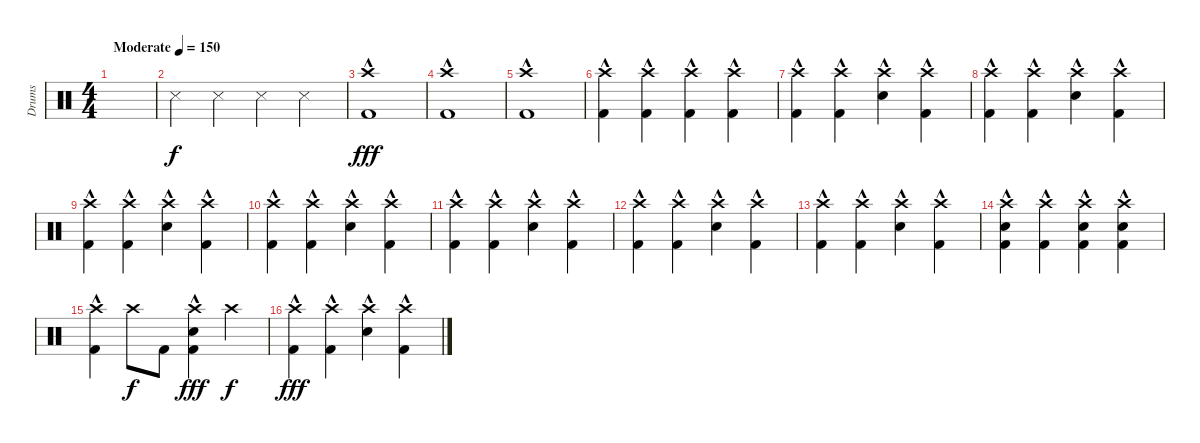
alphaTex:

\track ("Drums" "Drums") {instrument percussion}
\staff {score}
\articulation defaults
\ts (4 4)
\tempo (150 "Moderate")
\clef neutral
\ks c
|
"Snare (side stick) 3".4 "Snare (side stick) 3".4 "Snare (side stick) 3".4 "Snare (side stick) 3".4 |
("Crash high (hit)" "Kick (hit) 2"{hac}).1{dy fff} |
("Crash high (hit)" "Kick (hit) 2"{hac}).1 |
("Crash high (hit)" "Kick (hit) 2"{hac}).1 |
("Crash high (hit)" "Kick (hit) 2"{hac}).4 ("Crash high (hit)" "Kick (hit) 2"{hac}).4 ("Crash high (hit)" "Kick (hit) 2"{hac}).4 ("Crash high (hit)" "Kick (hit) 2"{hac}).4 |
("Crash high (hit)" "Kick (hit) 2"{hac}).4 ("Crash high (hit)" "Kick (hit) 2"{hac}).4 ("Crash high (hit)" "Electric Snare (hit)"{hac}).4 ("Crash high (hit)" "Kick (hit) 2"{hac}).4 |
("Crash high (hit)" "Kick (hit) 2"{hac}).4 ("Crash high (hit)" "Kick (hit) 2"{hac}).4 ("Crash high (hit)" "Electric Snare (hit)"{hac}).4 ("Crash high (hit)" "Kick (hit) 2"{hac}).4 |
("Crash high (hit)" "Kick (hit) 2"{hac}).4 ("Crash high (hit)" "Kick (hit) 2"{hac}).4 ("Crash high (hit)" "Electric Snare (hit)"{hac}).4 ("Crash high (hit)" "Kick (hit) 2"{hac}).4 |
("Crash high (hit)" "Kick (hit) 2"{hac}).4 ("Crash high (hit)" "Kick (hit) 2"{hac}).4 ("Crash high (hit)" "Electric Snare (hit)"{hac}).4 ("Crash high (hit)" "Kick (hit) 2"{hac}).4 |
("Crash high (hit)" "Kick (hit) 2"{hac}).4 ("Crash high (hit)" "Kick (hit) 2"{hac}).4 ("Crash high (hit)" "Electric Snare (hit)"{hac}).4 ("Crash high (hit)" "Kick (hit) 2"{hac}).4 |
("Crash high (hit)" "Kick (hit) 2"{hac}).4 ("Crash high (hit)" "Kick (hit) 2"{hac}).4 ("Crash high (hit)" "Electric Snare (hit)"{hac}).4 ("Crash high (hit)" "Kick (hit) 2"{hac}).4 |
("Crash high (hit)" "Kick (hit) 2"{hac}).4 ("Crash high (hit)" "Kick (hit) 2"{hac}).4 ("Crash high (hit)" "Electric Snare (hit)"{hac}).4 ("Crash high (hit)" "Kick (hit) 2"{hac}).4 |
("Crash high (hit)" "Electric Snare (hit)"{hac} "Kick (hit) 2"{hac}).4 ("Crash high (hit)" "Kick (hit) 2"{hac}).4 ("Crash high (hit)" "Electric Snare (hit)"{hac} "Kick (hit) 2"{hac}).4 ("Crash high (hit)" "Electric Snare (hit)"{hac} "Kick (hit) 2"{hac}).4 |
("Crash high (hit)" "Kick (hit) 2"{hac}).4 "Crash high (hit)".8{dy f} "Kick (hit) 2".8 ("Crash high (hit)" "Electric Snare (hit)"{hac} "Kick (hit) 2"{hac}).4{dy fff} "Crash high (hit)".4{dy f} |
("Crash high (hit)" "Kick (hit) 2"{hac}).4{dy fff} ("Crash high (hit)" "Kick (hit) 2"{hac}).4 ("Crash high (hit)" "Electric Snare (hit)"{hac}).4 ("Crash high (hit)" "Kick (hit) 2"{hac}).4
